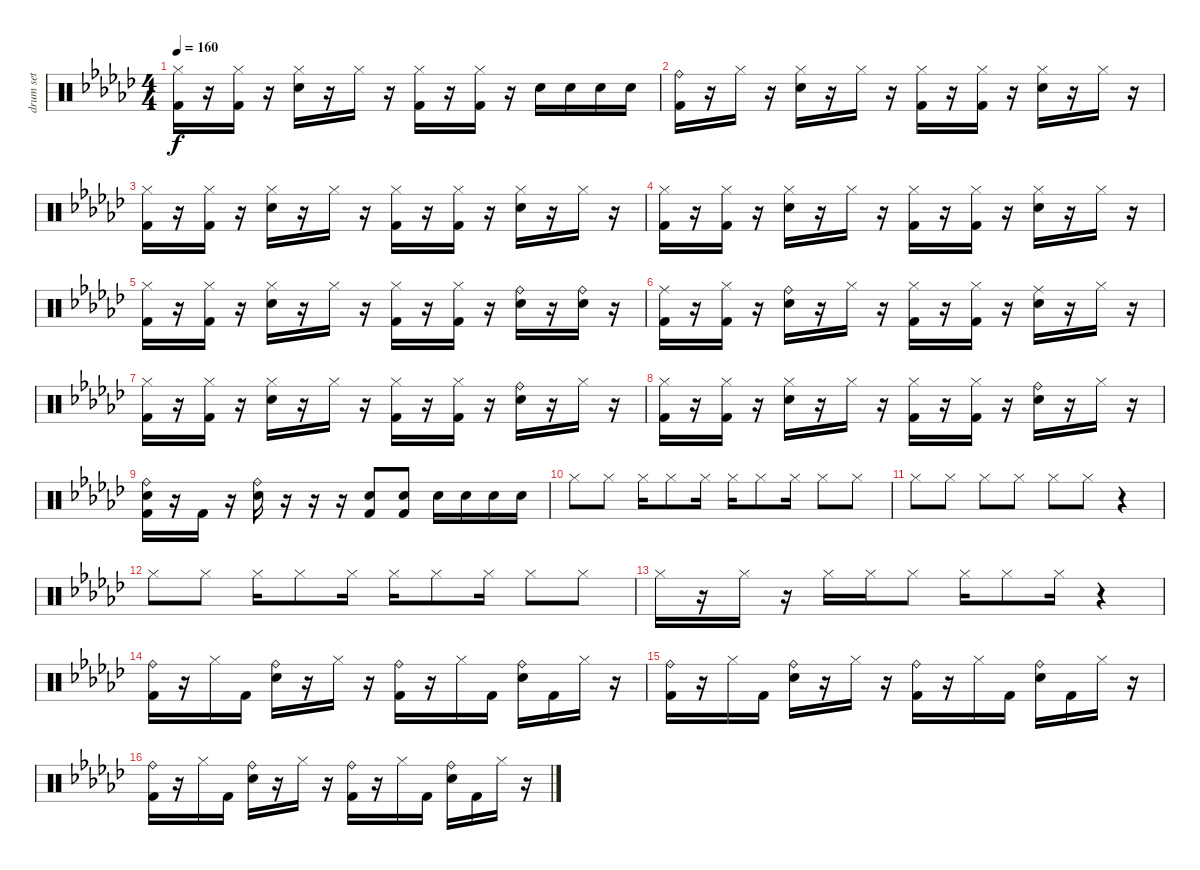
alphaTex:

\track ("drum set" "drum set") {instrument percussion}
\staff {score}
\articulation defaults
\ts (4 4)
\tempo 160
\clef neutral
\ks gb
("Hi-Hat (closed)" "Kick (hit) 2").16{dy f} r.16 ("Hi-Hat (closed)" "Kick (hit) 2").16 r.16 ("Hi-Hat (closed)" "Snare (hit) 2").16 r.16 "Hi-Hat (closed)".16 r.16 ("Hi-Hat (closed)" "Kick (hit) 2").16 r.16 ("Hi-Hat (closed)" "Kick (hit) 2").16 r.16 "Snare (hit) 2".16 "Snare (hit) 2".16 "Snare (hit) 2".16 "Snare (hit) 2".16 |
("Ride (bell)" "Kick (hit) 2").16 r.16 "Hi-Hat (closed)".16 r.16 ("Hi-Hat (closed)" "Snare (hit) 2").16 r.16 "Hi-Hat (closed)".16 r.16 ("Hi-Hat (closed)" "Kick (hit) 2").16 r.16 ("Hi-Hat (closed)" "Kick (hit) 2").16 r.16 ("Hi-Hat (closed)" "Snare (hit) 2").16 r.16 "Hi-Hat (closed)".16 r.16 |
("Hi-Hat (closed)" "Kick (hit) 2").16 r.16 ("Hi-Hat (closed)" "Kick (hit) 2").16 r.16 ("Hi-Hat (closed)" "Snare (hit) 2").16 r.16 "Hi-Hat (closed)".16 r.16 ("Hi-Hat (closed)" "Kick (hit) 2").16 r.16 ("Hi-Hat (closed)" "Kick (hit) 2").16 r.16 ("Hi-Hat (closed)" "Snare (hit) 2").16 r.16 "Hi-Hat (closed)".16 r.16 |
("Hi-Hat (closed)" "Kick (hit) 2").16 r.16 ("Hi-Hat (closed)" "Kick (hit) 2").16 r.16 ("Hi-Hat (closed)" "Snare (hit) 2").16 r.16 "Hi-Hat (closed)".16 r.16 ("Hi-Hat (closed)" "Kick (hit) 2").16 r.16 ("Hi-Hat (closed)" "Kick (hit) 2").16 r.16 ("Hi-Hat (closed)" "Snare (hit) 2").16 r.16 "Hi-Hat (closed)".16 r.16 |
("Hi-Hat (closed)" "Kick (hit) 2").16 r.16 ("Hi-Hat (closed)" "Kick (hit) 2").16 r.16 ("Hi-Hat (closed)" "Snare (hit) 2").16 r.16 "Hi-Hat (closed)".16 r.16 ("Hi-Hat (closed)" "Kick (hit) 2").16 r.16 ("Hi-Hat (closed)" "Kick (hit) 2").16 r.16 ("Ride (bell)" "Snare (hit) 2").16 r.16 ("Ride (bell)" "Snare (hit) 2").16 r.16 |
("Ride (middle)" "Kick (hit) 2").16 r.16 ("Hi-Hat (closed)" "Kick (hit) 2").16 r.16 ("Ride (bell)" "Snare (hit) 2").16 r.16 "Hi-Hat (closed)".16 r.16 ("Hi-Hat (closed)" "Kick (hit) 2").16 r.16 ("Hi-Hat (closed)" "Kick (hit) 2").16 r.16 ("Ride (middle)" "Snare (hit) 2").16 r.16 "Hi-Hat (closed)".16 r.16 |
("Hi-Hat (closed)" "Kick (hit) 2").16 r.16 ("Hi-Hat (closed)" "Kick (hit) 2").16 r.16 ("Hi-Hat (closed)" "Snare (hit) 2").16 r.16 "Hi-Hat (closed)".16 r.16 ("Hi-Hat (closed)" "Kick (hit) 2").16 r.16 ("Hi-Hat (closed)" "Kick (hit) 2").16 r.16 ("Ride (bell)" "Snare (hit) 2").16 r.16 "Hi-Hat (closed)".16 r.16 |
("Hi-Hat (closed)" "Kick (hit) 2").16 r.16 ("Hi-Hat (closed)" "Kick (hit) 2").16 r.16 ("Hi-Hat (closed)" "Snare (hit) 2").16 r.16 "Hi-Hat (closed)".16 r.16 ("Hi-Hat (closed)" "Kick (hit) 2").16 r.16 ("Hi-Hat (closed)" "Kick (hit) 2").16 r.16 ("Ride (bell)" "Snare (hit) 2").16 r.16 "Hi-Hat (closed)".16 r.16 |
("Ride (bell)" "Kick (hit) 2" "Snare (hit) 2").16 r.16 "Kick (hit) 2".16 r.16 ("Ride (bell)" "Snare (hit) 2").16 r.16 r.16 r.16 ("Snare (hit) 2" "Kick (hit) 2").8 ("Kick (hit) 2" "Snare (hit) 2").8 "Snare (hit) 2".16 "Snare (hit) 2".16 "Snare (hit) 2".16 "Snare (hit) 2".16 |
"Hi-Hat (closed)".8 "Hi-Hat (closed)".8 "Hi-Hat (closed)".16 "Hi-Hat (closed)".8 "Hi-Hat (closed)".16 "Hi-Hat (closed)".16 "Hi-Hat (closed)".8 "Hi-Hat (closed)".16 "Hi-Hat (closed)".8 "Hi-Hat (closed)".8 |
"Hi-Hat (closed)".8 "Hi-Hat (closed)".8 "Hi-Hat (closed)".8 "Hi-Hat (closed)".8 "Hi-Hat (closed)".8 "Hi-Hat (closed)".8 r.4 |
"Hi-Hat (closed)".8 "Hi-Hat (closed)".8 "Hi-Hat (closed)".16 "Hi-Hat (closed)".8 "Hi-Hat (closed)".16 "Hi-Hat (closed)".16 "Hi-Hat (closed)".8 "Hi-Hat (closed)".16 "Hi-Hat (closed)".8 "Hi-Hat (closed)".8 |
"Hi-Hat (closed)".16 r.16 "Hi-Hat (closed)".16 r.16 "Hi-Hat (closed)".16 "Hi-Hat (closed)".16 "Hi-Hat (closed)".8 "Hi-Hat (closed)".16 "Hi-Hat (closed)".8 "Hi-Hat (closed)".16 r.4 |
("Ride (bell)" "Kick (hit) 2").16 r.16 "Hi-Hat (closed)".16 "Kick (hit) 2".16 ("Ride (bell)" "Snare (hit) 2").16 r.16 "Hi-Hat (closed)".16 r.16 ("Ride (bell)" "Kick (hit) 2").16 r.16 "Hi-Hat (closed)".16 "Kick (hit) 2".16 ("Ride (bell)" "Snare (hit) 2").16 "Kick (hit) 2".16 "Hi-Hat (closed)".16 r.16 |
("Ride (bell)" "Kick (hit) 2").16 r.16 "Hi-Hat (closed)".16 "Kick (hit) 2".16 ("Ride (bell)" "Snare (hit) 2").16 r.16 "Hi-Hat (closed)".16 r.16 ("Ride (bell)" "Kick (hit) 2").16 r.16 "Hi-Hat (closed)".16 "Kick (hit) 2".16 ("Ride (bell)" "Snare (hit) 2").16 "Kick (hit) 2".16 "Hi-Hat (closed)".16 r.16 |
("Ride (bell)" "Kick (hit) 2").16 r.16 "Hi-Hat (closed)".16 "Kick (hit) 2".16 ("Ride (bell)" "Snare (hit) 2").16 r.16 "Hi-Hat (closed)".16 r.16 ("Ride (bell)" "Kick (hit) 2").16 r.16 "Hi-Hat (closed)".16 "Kick (hit) 2".16 ("Ride (bell)" "Snare (hit) 2").16 "Kick (hit) 2".16 "Hi-Hat (closed)".16 r.16
